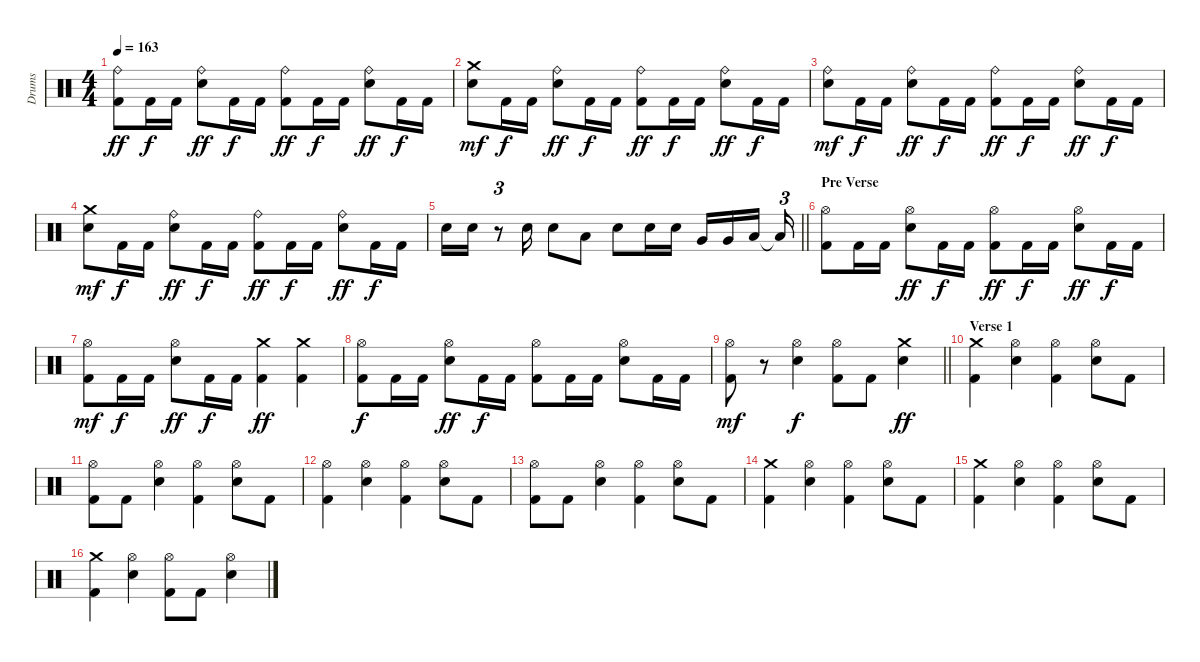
\track ("Drums" "Drums") {instrument percussion}
\staff {score}
\articulation defaults
\ts (4 4)
\tempo 163
\clef neutral
\ks c
("Ride (bell)" "Kick (hit) 2").8{dy ff} "Kick (hit) 2".16{dy f} "Kick (hit) 2".16 ("Ride (bell)" "Electric Snare (hit)").8{dy ff} "Kick (hit) 2".16{dy f} "Kick (hit) 2".16 ("Ride (bell)" "Kick (hit) 2").8{dy ff} "Kick (hit) 2".16{dy f} "Kick (hit) 2".16 ("Ride (bell)" "Electric Snare (hit)").8{dy ff} "Kick (hit) 2".16{dy f} "Kick (hit) 2".16 |
("Crash medium (hit)" "Electric Snare (hit)").8{dy mf} "Kick (hit) 2".16{dy f} "Kick (hit) 2".16 ("Ride (bell)" "Electric Snare (hit)").8{dy ff} "Kick (hit) 2".16{dy f} "Kick (hit) 2".16 ("Ride (bell)" "Kick (hit) 2").8{dy ff} "Kick (hit) 2".16{dy f} "Kick (hit) 2".16 ("Ride (bell)" "Electric Snare (hit)").8{dy ff} "Kick (hit) 2".16{dy f} "Kick (hit) 2".16 |
("Ride (bell)" "Electric Snare (hit)").8{dy mf} "Kick (hit) 2".16{dy f} "Kick (hit) 2".16 ("Ride (bell)" "Electric Snare (hit)").8{dy ff} "Kick (hit) 2".16{dy f} "Kick (hit) 2".16 ("Ride (bell)" "Kick (hit) 2").8{dy ff} "Kick (hit) 2".16{dy f} "Kick (hit) 2".16 ("Ride (bell)" "Electric Snare (hit)").8{dy ff} "Kick (hit) 2".16{dy f} "Kick (hit) 2".16 |
("Crash medium (hit)" "Electric Snare (hit)").8{dy mf} "Kick (hit) 2".16{dy f} "Kick (hit) 2".16 ("Ride (bell)" "Electric Snare (hit)").8{dy ff} "Kick (hit) 2".16{dy f} "Kick (hit) 2".16 ("Ride (bell)" "Kick (hit) 2").8{dy ff} "Kick (hit) 2".16{dy f} "Kick (hit) 2".16 ("Ride (bell)" "Electric Snare (hit)").8{dy ff} "Kick (hit) 2".16{dy f} "Kick (hit) 2".16 |
\barLineRight lightlight "Electric Snare (hit)".16 "Electric Snare (hit)".16
r.8{tu (3 2)} "Electric Snare (hit)".16 "Electric Snare (hit)".8 "Low Tom (hit)".8 "Electric Snare (hit)".8 "Electric Snare (hit)".16 "Electric Snare (hit)".16 "Very Low Tom (hit)".16 "Very Low Tom (hit)".16 "Low Floor Tom (hit)".16{beam splitsecondary} "Low Floor Tom (hit)"{t}.16{tu (3 2)} |
\section ("" "Pre Verse")
("Hi-Hat (open)" "Kick (hit) 2").8 "Kick (hit) 2".16 "Kick (hit) 2".16 ("Hi-Hat (open)" "Electric Snare (hit)").8{dy ff} "Kick (hit) 2".16{dy f} "Kick (hit) 2".16 ("Hi-Hat (open)" "Kick (hit) 2").8{dy ff} "Kick (hit) 2".16{dy f} "Kick (hit) 2".16 ("Hi-Hat (open)" "Electric Snare (hit)").8{dy ff} "Kick (hit) 2".16{dy f} "Kick (hit) 2".16 |
("Hi-Hat (open)" "Kick (hit) 2").8{dy mf} "Kick (hit) 2".16{dy f} "Kick (hit) 2".16 ("Hi-Hat (open)" "Electric Snare (hit)").8{dy ff} "Kick (hit) 2".16{dy f} "Kick (hit) 2".16 ("Crash medium (hit)" "Kick (hit) 2").4{dy ff} ("Crash medium (hit)" "Kick (hit) 2").4 |
("Hi-Hat (open)" "Kick (hit) 2").8{dy f} "Kick (hit) 2".16 "Kick (hit) 2".16 ("Hi-Hat (open)" "Electric Snare (hit)").8{dy ff} "Kick (hit) 2".16{dy f} "Kick (hit) 2".16 ("Hi-Hat (open)" "Kick (hit) 2").8 "Kick (hit) 2".16 "Kick (hit) 2".16 ("Hi-Hat (open)" "Electric Snare (hit)").8 "Kick (hit) 2".16 "Kick (hit) 2".16 |
\barLineRight lightlight
("Hi-Hat (open)" "Kick (hit) 2").8{dy mf} r.8 ("Hi-Hat (open)" "Electric Snare (hit)").4{dy f} ("Hi-Hat (open)" "Kick (hit) 2").8 "Kick (hit) 2".8 ("Crash medium (hit)" "Electric Snare (hit)").4{dy ff} |
\section ("" "Verse 1")
("Crash medium (hit)" "Kick (hit) 2").4 ("Hi-Hat (open)" "Electric Snare (hit)").4 ("Hi-Hat (open)" "Kick (hit) 2").4 ("Hi-Hat (open)" "Electric Snare (hit)").8 "Kick (hit) 2".8 |
("Hi-Hat (open)" "Kick (hit) 2").8 "Kick (hit) 2".8 ("Hi-Hat (open)" "Electric Snare (hit)").4 ("Hi-Hat (open)" "Kick (hit) 2").4 ("Hi-Hat (open)" "Electric Snare (hit)").8 "Kick (hit) 2".8 |
("Hi-Hat (open)" "Kick (hit) 2").4 ("Hi-Hat (open)" "Electric Snare (hit)").4 ("Hi-Hat (open)" "Kick (hit) 2").4 ("Hi-Hat (open)" "Electric Snare (hit)").8 "Kick (hit) 2".8 |
("Hi-Hat (open)" "Kick (hit) 2").8 "Kick (hit) 2".8 ("Hi-Hat (open)" "Electric Snare (hit)").4 ("Hi-Hat (open)" "Kick (hit) 2").4 ("Hi-Hat (open)" "Electric Snare (hit)").8 "Kick (hit) 2".8 |
("Crash medium (hit)" "Kick (hit) 2").4 ("Hi-Hat (open)" "Electric Snare (hit)").4 ("Hi-Hat (open)" "Kick (hit) 2").4 ("Hi-Hat (open)" "Electric Snare (hit)").8 "Kick (hit) 2".8 |
("Crash medium (hit)" "Kick (hit) 2").4 ("Hi-Hat (open)" "Electric Snare (hit)").4 ("Hi-Hat (open)" "Kick (hit) 2").4 ("Hi-Hat (open)" "Electric Snare (hit)").8 "Kick (hit) 2".8 |
("Crash medium (hit)" "Kick (hit) 2").4 ("Hi-Hat (open)" "Electric Snare (hit)").4 ("Hi-Hat (open)" "Kick (hit) 2").8 "Kick (hit) 2".8 ("Hi-Hat (open)" "Electric Snare (hit)").4
